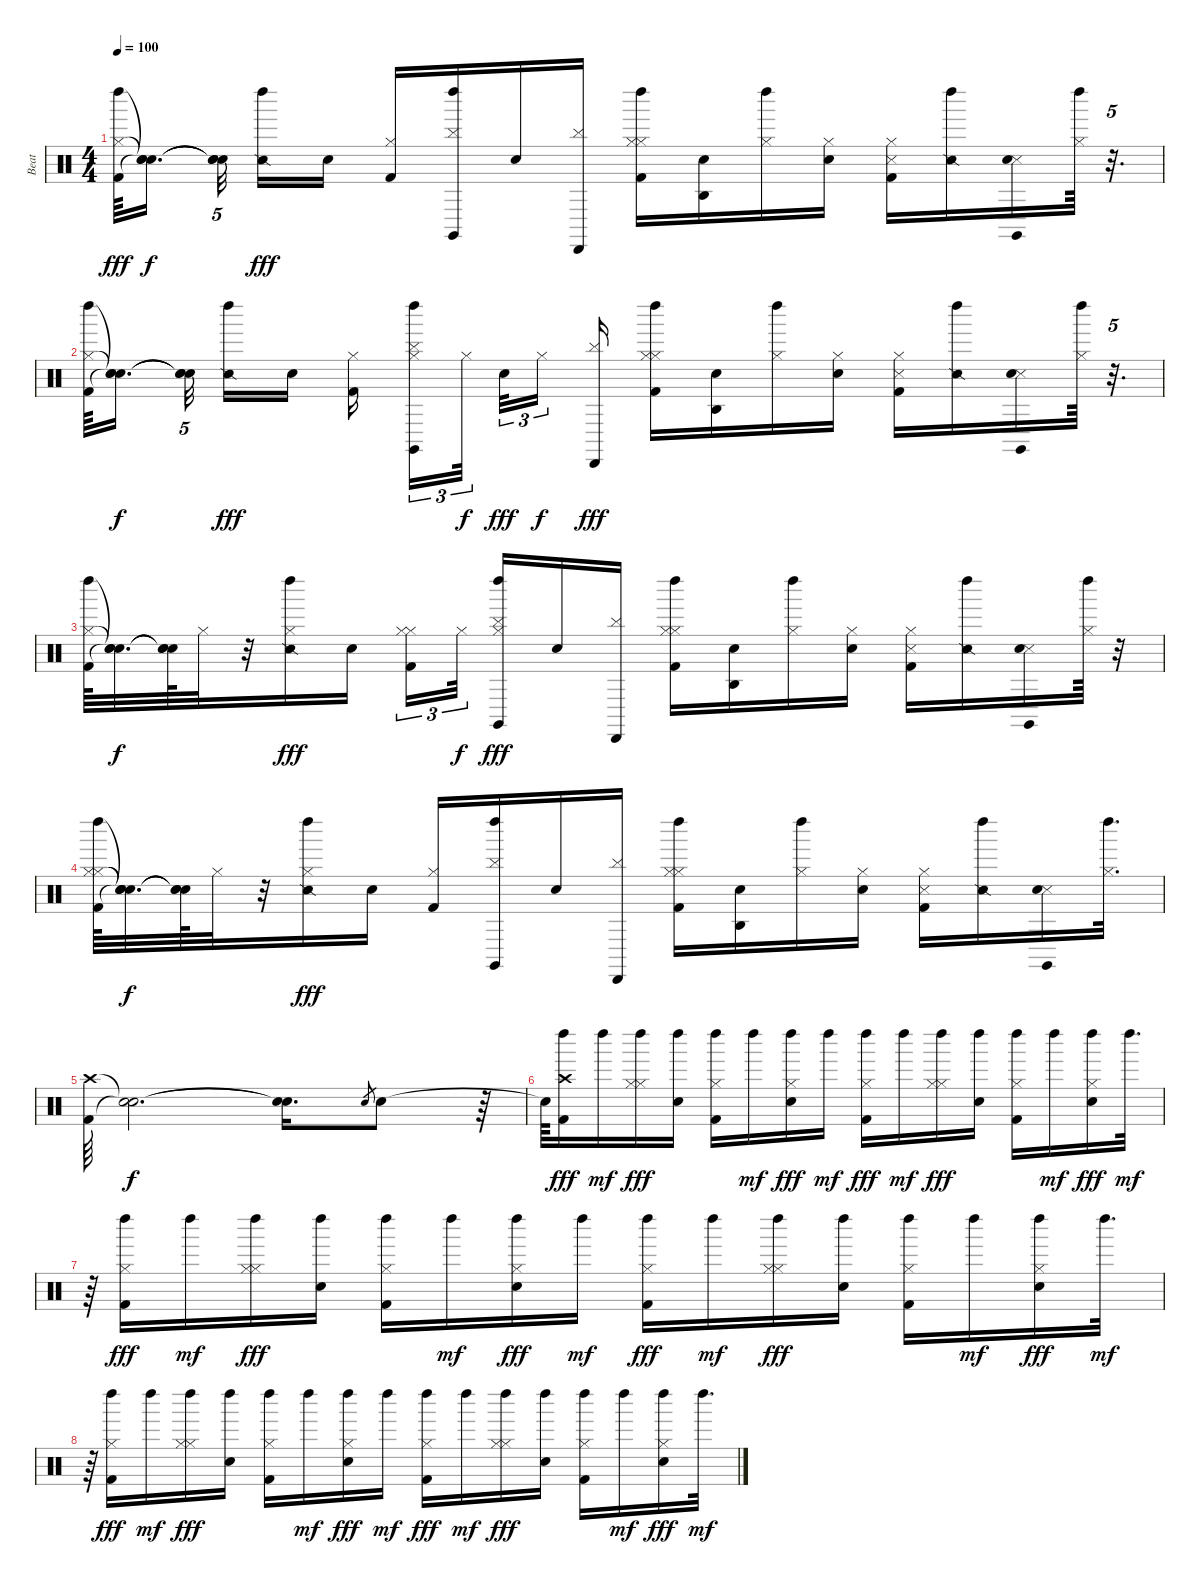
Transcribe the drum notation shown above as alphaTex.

\track ("Beat" "Beat") {instrument percussion}
\staff {score}
\articulation defaults
\ts (4 4)
\tempo 100
\clef neutral
\ks c
("Left Maraca (hit)" "Hi-Hat (closed)" "Kick (hit) 2").64{dy fff} ("Snare (hit)"{t} "Snare (hit)"{t} "Snare (hit)"{t}).16{d dy f beam splitsecondary} ("Snare (hit)"{t} "Snare (hit)"{t} "Snare (hit)"{t}).32{tu (5 4) beam splitsecondary} ("Left Maraca (hit)" "Snare (side stick) 2").16{dy fff} "Electric Snare (hit)".16 ("Kick (hit) 2" "Hi-Hat (closed)").16 ("Claves (hit)" "Left Maraca (hit)" "Cymbal (hit)").16 "Electric Snare (hit)".16 ("Cymbal (hit)" "Cabasa (hit)").16 ("Left Maraca (hit)" "Hi-Hat (closed)" "Hi-Hat (closed)" "Kick (hit) 2").16 ("Agogo high (hit)" "Electric Snare (hit)").16 ("Left Maraca (hit)" "Hi-Hat (closed)").16 ("Hi-Hat (closed)" "Electric Snare (hit)").16 ("Metronome (hit)" "Hi-Hat (closed)" "Kick (hit) 2").16 ("Left Maraca (hit)" "Snare (side stick) 2").16 ("Metronome (hit)" "Electric Snare (hit)" "Claves (hit)").16 ("Left Maraca (hit)" "Hi-Hat (closed)").64 r.32{d tu (5 4)} |
("Left Maraca (hit)" "Hi-Hat (closed)" "Kick (hit) 2").64 ("Snare (hit)"{t} "Snare (hit)"{t} "Snare (hit)"{t}).16{d dy f beam splitsecondary} ("Snare (hit)"{t} "Snare (hit)"{t} "Snare (hit)"{t}).32{tu (5 4) beam splitsecondary} ("Left Maraca (hit)" "Snare (side stick) 2").16{dy fff} "Electric Snare (hit)".16 ("Kick (hit) 2" "Hi-Hat (closed)").16{beam splitsecondary} ("Hi-Hat (closed)" "Claves (hit)" "Left Maraca (hit)" "Cymbal (hit)").16{tu (3 2)} "Hi-Hat (closed)".32{tu (3 2) dy f beam splitsecondary} "Electric Snare (hit)".32{tu (3 2) dy fff} "Hi-Hat (closed)".16{tu (3 2) dy f beam splitsecondary} ("Cymbal (hit)" "Cabasa (hit)").16{dy fff} ("Left Maraca (hit)" "Hi-Hat (closed)" "Hi-Hat (closed)" "Kick (hit) 2").16 ("Agogo high (hit)" "Electric Snare (hit)").16 ("Left Maraca (hit)" "Hi-Hat (closed)").16 ("Hi-Hat (closed)" "Electric Snare (hit)").16 ("Metronome (hit)" "Hi-Hat (closed)" "Kick (hit) 2").16 ("Left Maraca (hit)" "Snare (side stick) 2").16 ("Metronome (hit)" "Electric Snare (hit)" "Claves (hit)").16 ("Left Maraca (hit)" "Hi-Hat (closed)").64 r.32{d tu (5 4)} |
("Left Maraca (hit)" "Hi-Hat (closed)" "Kick (hit) 2").64 ("Snare (hit)"{t} "Snare (hit)"{t} "Snare (hit)"{t}).32{d dy f} ("Snare (hit)"{t} "Snare (hit)"{t} "Snare (hit)"{t}).64 "Hi-Hat (closed)".32 r.32 ("Hi-Hat (closed)" "Left Maraca (hit)" "Snare (side stick) 2").16{dy fff} "Electric Snare (hit)".16 ("Hi-Hat (closed)" "Kick (hit) 2" "Hi-Hat (closed)").16{tu (3 2)} "Hi-Hat (closed)".32{tu (3 2) dy f beam splitsecondary} ("Hi-Hat (closed)" "Claves (hit)" "Left Maraca (hit)" "Cymbal (hit)").16{dy fff} "Electric Snare (hit)".16 ("Cymbal (hit)" "Cabasa (hit)").16 ("Left Maraca (hit)" "Hi-Hat (closed)" "Hi-Hat (closed)" "Kick (hit) 2").16 ("Agogo high (hit)" "Electric Snare (hit)").16 ("Left Maraca (hit)" "Hi-Hat (closed)").16 ("Hi-Hat (closed)" "Electric Snare (hit)").16 ("Metronome (hit)" "Hi-Hat (closed)" "Kick (hit) 2").16 ("Left Maraca (hit)" "Snare (side stick) 2").16 ("Metronome (hit)" "Electric Snare (hit)" "Claves (hit)").16 ("Left Maraca (hit)" "Hi-Hat (closed)").64 r.32 |
("Hi-Hat (closed)" "Left Maraca (hit)" "Hi-Hat (closed)" "Kick (hit) 2").64 ("Snare (hit)"{t} "Snare (hit)"{t} "Snare (hit)"{t} "Snare (hit)"{t}).32{d dy f} ("Snare (hit)"{t} "Snare (hit)"{t} "Snare (hit)"{t}).64 "Hi-Hat (closed)".32 r.32 ("Hi-Hat (closed)" "Left Maraca (hit)" "Snare (side stick) 2").16{dy fff} "Electric Snare (hit)".16 ("Kick (hit) 2" "Hi-Hat (closed)").16 ("Claves (hit)" "Left Maraca (hit)" "Cymbal (hit)").16 "Electric Snare (hit)".16 ("Cymbal (hit)" "Cabasa (hit)").16 ("Left Maraca (hit)" "Hi-Hat (closed)" "Hi-Hat (closed)" "Kick (hit) 2").16 ("Agogo high (hit)" "Electric Snare (hit)").16 ("Left Maraca (hit)" "Hi-Hat (closed)").16 ("Hi-Hat (closed)" "Electric Snare (hit)").16 ("Metronome (hit)" "Hi-Hat (closed)" "Kick (hit) 2").16 ("Left Maraca (hit)" "Snare (side stick) 2").16 ("Metronome (hit)" "Electric Snare (hit)" "Claves (hit)").16 ("Left Maraca (hit)" "Hi-Hat (closed)").32{d} |
("Crash high (hit)" "Kick (hit) 2").64 ("Snare (hit)"{t} "Snare (hit)"{t}).2{d dy f} ("Snare (hit)"{t} "Snare (hit)"{t}).16{d} "Electric Snare (hit)".8{gr} "Electric Snare (hit)".8 r.64 |
"Snare (hit)"{t}.64 ("Left Maraca (hit)" "Crash high (hit)" "Kick (hit) 2").16{dy fff} "Left Maraca (hit)".16{dy mf} ("Hi-Hat (closed)" "Left Maraca (hit)" "Hi-Hat (closed)").16{dy fff} ("Left Maraca (hit)" "Electric Snare (hit)").16 ("Left Maraca (hit)" "Kick (hit) 2" "Hi-Hat (closed)").16 "Left Maraca (hit)".16{dy mf} ("Left Maraca (hit)" "Hi-Hat (closed)" "Electric Snare (hit)").16{dy fff} "Left Maraca (hit)".16{dy mf} ("Left Maraca (hit)" "Hi-Hat (closed)" "Kick (hit) 2").16{dy fff} "Left Maraca (hit)".16{dy mf} ("Hi-Hat (closed)" "Left Maraca (hit)" "Hi-Hat (closed)").16{dy fff} ("Left Maraca (hit)" "Electric Snare (hit)").16 ("Left Maraca (hit)" "Kick (hit) 2" "Hi-Hat (closed)").16 "Left Maraca (hit)".16{dy mf} ("Left Maraca (hit)" "Hi-Hat (closed)" "Electric Snare (hit)").16{dy fff} "Left Maraca (hit)".32{d dy mf} |
r.64 ("Left Maraca (hit)" "Hi-Hat (closed)" "Kick (hit) 2").16{dy fff} "Left Maraca (hit)".16{dy mf} ("Hi-Hat (closed)" "Left Maraca (hit)" "Hi-Hat (closed)").16{dy fff} ("Left Maraca (hit)" "Electric Snare (hit)").16 ("Left Maraca (hit)" "Kick (hit) 2" "Hi-Hat (closed)").16 "Left Maraca (hit)".16{dy mf} ("Left Maraca (hit)" "Hi-Hat (closed)" "Electric Snare (hit)").16{dy fff} "Left Maraca (hit)".16{dy mf} ("Left Maraca (hit)" "Hi-Hat (closed)" "Kick (hit) 2").16{dy fff} "Left Maraca (hit)".16{dy mf} ("Hi-Hat (closed)" "Left Maraca (hit)" "Hi-Hat (closed)").16{dy fff} ("Left Maraca (hit)" "Electric Snare (hit)").16 ("Left Maraca (hit)" "Kick (hit) 2" "Hi-Hat (closed)").16 "Left Maraca (hit)".16{dy mf} ("Left Maraca (hit)" "Hi-Hat (closed)" "Electric Snare (hit)").16{dy fff} "Left Maraca (hit)".32{d dy mf} |
r.64 ("Left Maraca (hit)" "Hi-Hat (closed)" "Kick (hit) 2").16{dy fff} "Left Maraca (hit)".16{dy mf} ("Hi-Hat (closed)" "Left Maraca (hit)" "Hi-Hat (closed)").16{dy fff} ("Left Maraca (hit)" "Electric Snare (hit)").16 ("Left Maraca (hit)" "Kick (hit) 2" "Hi-Hat (closed)").16 "Left Maraca (hit)".16{dy mf} ("Left Maraca (hit)" "Hi-Hat (closed)" "Electric Snare (hit)").16{dy fff} "Left Maraca (hit)".16{dy mf} ("Left Maraca (hit)" "Hi-Hat (closed)" "Kick (hit) 2").16{dy fff} "Left Maraca (hit)".16{dy mf} ("Hi-Hat (closed)" "Left Maraca (hit)" "Hi-Hat (closed)").16{dy fff} ("Left Maraca (hit)" "Electric Snare (hit)").16 ("Left Maraca (hit)" "Kick (hit) 2" "Hi-Hat (closed)").16 "Left Maraca (hit)".16{dy mf} ("Left Maraca (hit)" "Hi-Hat (closed)" "Electric Snare (hit)").16{dy fff} "Left Maraca (hit)".32{d dy mf}
